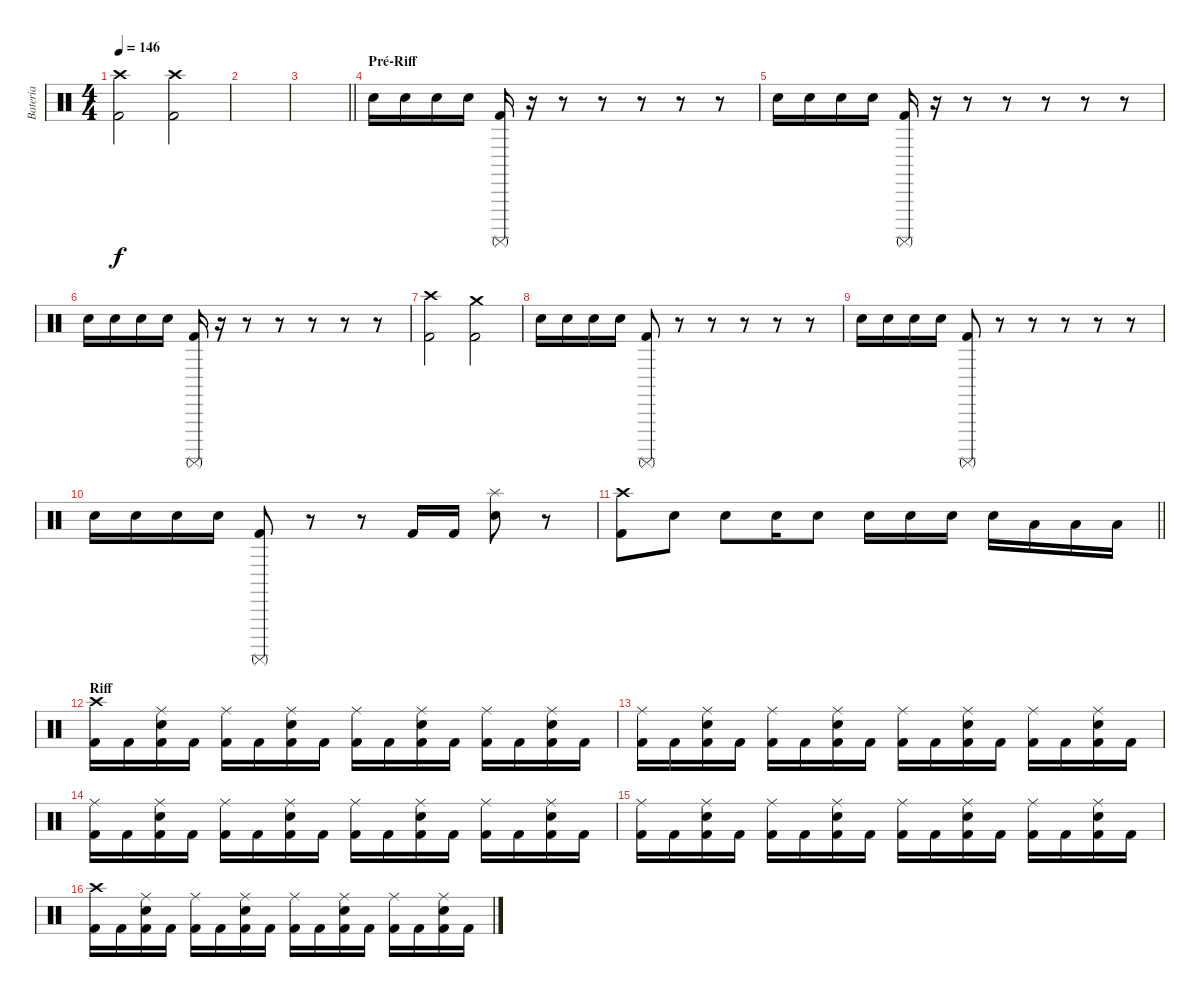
\track ("Bateria" "Bateria") {instrument percussion}
\staff {score}
\articulation defaults
\ts (4 4)
\tempo 146
\clef neutral
\ks c
("Kick (hit) 2" "Crash high (hit)").2{dy f} ("Kick (hit) 2" "Crash high (hit)").2 |
|
\barLineRight lightlight
|
\section ("" "Pré-Riff")
"Electric Snare (hit)".16 "Electric Snare (hit)".16 "Electric Snare (hit)".16 "Electric Snare (hit)".16 ("Kick (hit) 2" "Surdo (mute)").16 r.16 r.8 r.8 r.8 r.8 r.8 |
"Electric Snare (hit)".16 "Electric Snare (hit)".16 "Electric Snare (hit)".16 "Electric Snare (hit)".16 ("Kick (hit) 2" "Surdo (mute)").16 r.16 r.8 r.8 r.8 r.8 r.8 |
"Electric Snare (hit)".16 "Electric Snare (hit)".16 "Electric Snare (hit)".16 "Electric Snare (hit)".16 ("Kick (hit) 2" "Surdo (mute)").16 r.16 r.8 r.8 r.8 r.8 r.8 |
("Kick (hit) 2" "Crash high (hit)").2 ("Kick (hit) 2" "Crash medium (hit)").2 |
"Electric Snare (hit)".16 "Electric Snare (hit)".16 "Electric Snare (hit)".16 "Electric Snare (hit)".16 ("Kick (hit) 2" "Surdo (mute)").8 r.8 r.8 r.8 r.8 r.8 |
"Electric Snare (hit)".16 "Electric Snare (hit)".16 "Electric Snare (hit)".16 "Electric Snare (hit)".16 ("Kick (hit) 2" "Surdo (mute)").8 r.8 r.8 r.8 r.8 r.8 |
"Electric Snare (hit)".16 "Electric Snare (hit)".16 "Electric Snare (hit)".16 "Electric Snare (hit)".16 ("Kick (hit) 2" "Surdo (mute)").8 r.8 r.8 "Kick (hit) 2".16 "Kick (hit) 2".16 ("Electric Snare (hit)" "Splash (hit)").8 r.8 |
\barLineRight lightlight
("Kick (hit) 2" "Crash high (hit)").8 "Electric Snare (hit)".8 "Electric Snare (hit)".8 "Electric Snare (hit)".16 "Electric Snare (hit)".8 "Electric Snare (hit)".16 "Electric Snare (hit)".16 "Electric Snare (hit)".16 "Electric Snare (hit)".16 "Low Tom (hit)".16 "Low Tom (hit)".16 "Low Tom (hit)".16 |
\section ("" "Riff")
("Kick (hit) 2" "Crash high (hit)").16 "Kick (hit) 2".16 ("Kick (hit) 2" "Electric Snare (hit)" "Ride (middle)").16 "Kick (hit) 2".16 ("Kick (hit) 2" "Ride (middle)").16 "Kick (hit) 2".16 ("Kick (hit) 2" "Electric Snare (hit)" "Ride (middle)").16 "Kick (hit) 2".16 ("Kick (hit) 2" "Ride (middle)").16 "Kick (hit) 2".16 ("Kick (hit) 2" "Electric Snare (hit)" "Ride (middle)").16 "Kick (hit) 2".16 ("Kick (hit) 2" "Ride (middle)").16 "Kick (hit) 2".16 ("Kick (hit) 2" "Electric Snare (hit)" "Ride (middle)").16 "Kick (hit) 2".16 |
("Kick (hit) 2" "Ride (middle)").16 "Kick (hit) 2".16 ("Kick (hit) 2" "Electric Snare (hit)" "Ride (middle)").16 "Kick (hit) 2".16 ("Kick (hit) 2" "Ride (middle)").16 "Kick (hit) 2".16 ("Kick (hit) 2" "Electric Snare (hit)" "Ride (middle)").16 "Kick (hit) 2".16 ("Kick (hit) 2" "Ride (middle)").16 "Kick (hit) 2".16 ("Kick (hit) 2" "Electric Snare (hit)" "Ride (middle)").16 "Kick (hit) 2".16 ("Kick (hit) 2" "Ride (middle)").16 "Kick (hit) 2".16 ("Kick (hit) 2" "Electric Snare (hit)" "Ride (middle)").16 "Kick (hit) 2".16 |
("Kick (hit) 2" "Ride (middle)").16 "Kick (hit) 2".16 ("Kick (hit) 2" "Electric Snare (hit)" "Ride (middle)").16 "Kick (hit) 2".16 ("Kick (hit) 2" "Ride (middle)").16 "Kick (hit) 2".16 ("Kick (hit) 2" "Electric Snare (hit)" "Ride (middle)").16 "Kick (hit) 2".16 ("Kick (hit) 2" "Ride (middle)").16 "Kick (hit) 2".16 ("Kick (hit) 2" "Electric Snare (hit)" "Ride (middle)").16 "Kick (hit) 2".16 ("Kick (hit) 2" "Ride (middle)").16 "Kick (hit) 2".16 ("Kick (hit) 2" "Electric Snare (hit)" "Ride (middle)").16 "Kick (hit) 2".16 |
("Kick (hit) 2" "Ride (middle)").16 "Kick (hit) 2".16 ("Kick (hit) 2" "Electric Snare (hit)" "Ride (middle)").16 "Kick (hit) 2".16 ("Kick (hit) 2" "Ride (middle)").16 "Kick (hit) 2".16 ("Kick (hit) 2" "Electric Snare (hit)" "Ride (middle)").16 "Kick (hit) 2".16 ("Kick (hit) 2" "Ride (middle)").16 "Kick (hit) 2".16 ("Kick (hit) 2" "Electric Snare (hit)" "Ride (middle)").16 "Kick (hit) 2".16 ("Kick (hit) 2" "Ride (middle)").16 "Kick (hit) 2".16 ("Kick (hit) 2" "Electric Snare (hit)" "Ride (middle)").16 "Kick (hit) 2".16 |
("Kick (hit) 2" "Crash high (hit)").16 "Kick (hit) 2".16 ("Kick (hit) 2" "Electric Snare (hit)" "Ride (middle)").16 "Kick (hit) 2".16 ("Kick (hit) 2" "Ride (middle)").16 "Kick (hit) 2".16 ("Kick (hit) 2" "Electric Snare (hit)" "Ride (middle)").16 "Kick (hit) 2".16 ("Kick (hit) 2" "Ride (middle)").16 "Kick (hit) 2".16 ("Kick (hit) 2" "Electric Snare (hit)" "Ride (middle)").16 "Kick (hit) 2".16 ("Kick (hit) 2" "Ride (middle)").16 "Kick (hit) 2".16 ("Kick (hit) 2" "Electric Snare (hit)" "Ride (middle)").16 "Kick (hit) 2".16
